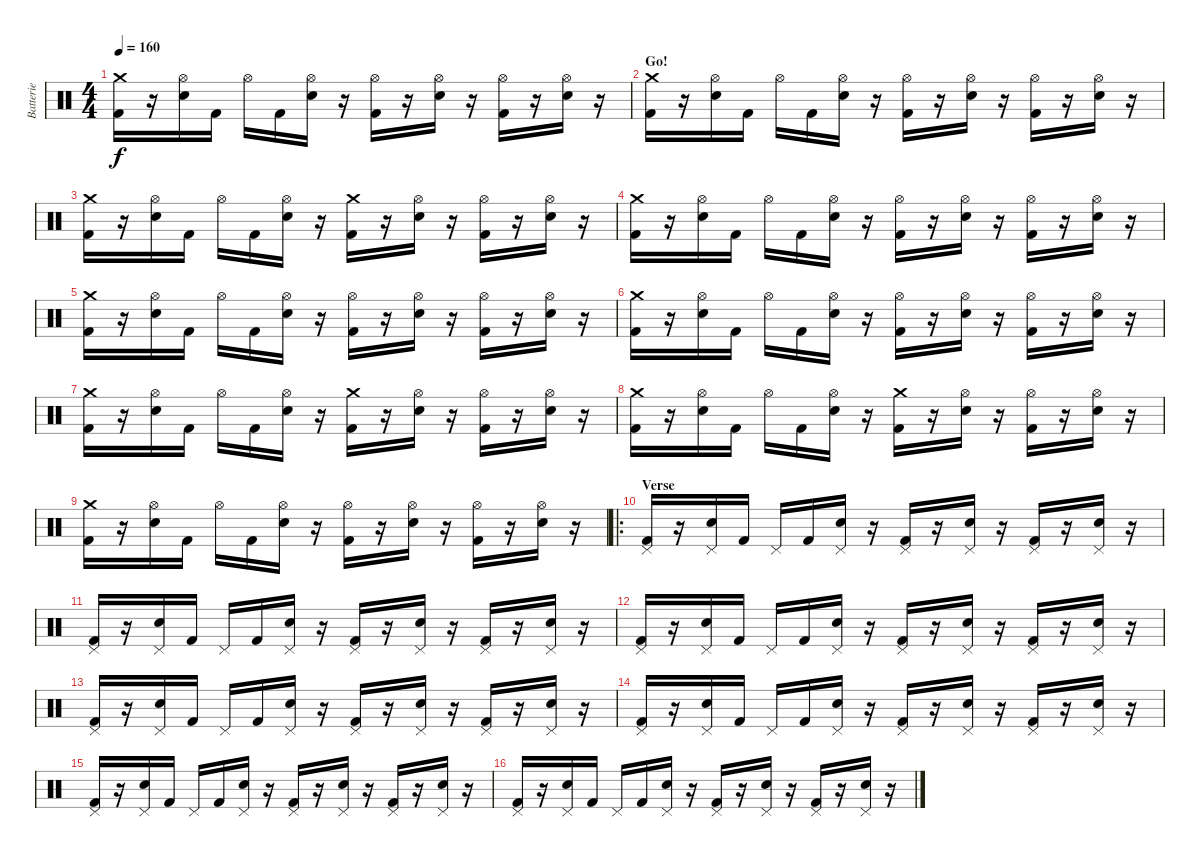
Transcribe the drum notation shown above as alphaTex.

\track ("Batterie" "Batterie") {instrument percussion}
\staff {score}
\articulation defaults
\ts (4 4)
\tempo 160
\clef neutral
\ks c
("Crash medium (hit)" "Kick (hit) 2").16{dy f} r.16 ("Hi-Hat (open)" "Electric Snare (hit)").16 "Kick (hit) 2".16 "Hi-Hat (open)".16 "Kick (hit) 2".16 ("Hi-Hat (open)" "Electric Snare (hit)").16 r.16 ("Hi-Hat (open)" "Kick (hit) 2").16 r.16 ("Hi-Hat (open)" "Electric Snare (hit)").16 r.16 ("Hi-Hat (open)" "Kick (hit) 2").16 r.16 ("Hi-Hat (open)" "Electric Snare (hit)").16 r.16 |
\section ("" "Go!")
("Crash medium (hit)" "Kick (hit) 2").16 r.16 ("Hi-Hat (open)" "Electric Snare (hit)").16 "Kick (hit) 2".16 "Hi-Hat (open)".16 "Kick (hit) 2".16 ("Hi-Hat (open)" "Electric Snare (hit)").16 r.16 ("Hi-Hat (open)" "Kick (hit) 2").16 r.16 ("Hi-Hat (open)" "Electric Snare (hit)").16 r.16 ("Hi-Hat (open)" "Kick (hit) 2").16 r.16 ("Hi-Hat (open)" "Electric Snare (hit)").16 r.16 |
("Crash medium (hit)" "Kick (hit) 2").16 r.16 ("Hi-Hat (open)" "Electric Snare (hit)").16 "Kick (hit) 2".16 "Hi-Hat (open)".16 "Kick (hit) 2".16 ("Hi-Hat (open)" "Electric Snare (hit)").16 r.16 ("Crash medium (hit)" "Kick (hit) 2").16 r.16 ("Hi-Hat (open)" "Electric Snare (hit)").16 r.16 ("Hi-Hat (open)" "Kick (hit) 2").16 r.16 ("Hi-Hat (open)" "Electric Snare (hit)").16 r.16 |
("Crash medium (hit)" "Kick (hit) 2").16 r.16 ("Hi-Hat (open)" "Electric Snare (hit)").16 "Kick (hit) 2".16 "Hi-Hat (open)".16 "Kick (hit) 2".16 ("Hi-Hat (open)" "Electric Snare (hit)").16 r.16 ("Hi-Hat (open)" "Kick (hit) 2").16 r.16 ("Hi-Hat (open)" "Electric Snare (hit)").16 r.16 ("Hi-Hat (open)" "Kick (hit) 2").16 r.16 ("Hi-Hat (open)" "Electric Snare (hit)").16 r.16 |
("Crash medium (hit)" "Kick (hit) 2").16 r.16 ("Hi-Hat (open)" "Electric Snare (hit)").16 "Kick (hit) 2".16 "Hi-Hat (open)".16 "Kick (hit) 2".16 ("Hi-Hat (open)" "Electric Snare (hit)").16 r.16 ("Hi-Hat (open)" "Kick (hit) 2").16 r.16 ("Hi-Hat (open)" "Electric Snare (hit)").16 r.16 ("Hi-Hat (open)" "Kick (hit) 2").16 r.16 ("Hi-Hat (open)" "Electric Snare (hit)").16 r.16 |
("Crash medium (hit)" "Kick (hit) 2").16 r.16 ("Hi-Hat (open)" "Electric Snare (hit)").16 "Kick (hit) 2".16 "Hi-Hat (open)".16 "Kick (hit) 2".16 ("Hi-Hat (open)" "Electric Snare (hit)").16 r.16 ("Hi-Hat (open)" "Kick (hit) 2").16 r.16 ("Hi-Hat (open)" "Electric Snare (hit)").16 r.16 ("Hi-Hat (open)" "Kick (hit) 2").16 r.16 ("Hi-Hat (open)" "Electric Snare (hit)").16 r.16 |
("Crash medium (hit)" "Kick (hit) 2").16 r.16 ("Hi-Hat (open)" "Electric Snare (hit)").16 "Kick (hit) 2".16 "Hi-Hat (open)".16 "Kick (hit) 2".16 ("Hi-Hat (open)" "Electric Snare (hit)").16 r.16 ("Crash medium (hit)" "Kick (hit) 2").16 r.16 ("Hi-Hat (open)" "Electric Snare (hit)").16 r.16 ("Hi-Hat (open)" "Kick (hit) 2").16 r.16 ("Hi-Hat (open)" "Electric Snare (hit)").16 r.16 |
("Crash medium (hit)" "Kick (hit) 2").16 r.16 ("Hi-Hat (open)" "Electric Snare (hit)").16 "Kick (hit) 2".16 "Hi-Hat (open)".16 "Kick (hit) 2".16 ("Hi-Hat (open)" "Electric Snare (hit)").16 r.16 ("Crash medium (hit)" "Kick (hit) 2").16 r.16 ("Hi-Hat (open)" "Electric Snare (hit)").16 r.16 ("Hi-Hat (open)" "Kick (hit) 2").16 r.16 ("Hi-Hat (open)" "Electric Snare (hit)").16 r.16 |
("Crash medium (hit)" "Kick (hit) 2").16 r.16 ("Hi-Hat (open)" "Electric Snare (hit)").16 "Kick (hit) 2".16 "Hi-Hat (open)".16 "Kick (hit) 2".16 ("Hi-Hat (open)" "Electric Snare (hit)").16 r.16 ("Hi-Hat (open)" "Kick (hit) 2").16 r.16 ("Hi-Hat (open)" "Electric Snare (hit)").16 r.16 ("Hi-Hat (open)" "Kick (hit) 2").16 r.16 ("Hi-Hat (open)" "Electric Snare (hit)").16 r.16 |
\ro
\section ("" "Verse")
("Pedal Hi-Hat (hit)" "Kick (hit) 2").16 r.16 ("Pedal Hi-Hat (hit)" "Electric Snare (hit)").16 "Kick (hit) 2".16 "Pedal Hi-Hat (hit)".16 "Kick (hit) 2".16 ("Pedal Hi-Hat (hit)" "Electric Snare (hit)").16 r.16 ("Pedal Hi-Hat (hit)" "Kick (hit) 2").16 r.16 ("Pedal Hi-Hat (hit)" "Electric Snare (hit)").16 r.16 ("Pedal Hi-Hat (hit)" "Kick (hit) 2").16 r.16 ("Pedal Hi-Hat (hit)" "Electric Snare (hit)").16 r.16 |
("Pedal Hi-Hat (hit)" "Kick (hit) 2").16 r.16 ("Pedal Hi-Hat (hit)" "Electric Snare (hit)").16 "Kick (hit) 2".16 "Pedal Hi-Hat (hit)".16 "Kick (hit) 2".16 ("Pedal Hi-Hat (hit)" "Electric Snare (hit)").16 r.16 ("Pedal Hi-Hat (hit)" "Kick (hit) 2").16 r.16 ("Pedal Hi-Hat (hit)" "Electric Snare (hit)").16 r.16 ("Pedal Hi-Hat (hit)" "Kick (hit) 2").16 r.16 ("Pedal Hi-Hat (hit)" "Electric Snare (hit)").16 r.16 |
("Pedal Hi-Hat (hit)" "Kick (hit) 2").16 r.16 ("Pedal Hi-Hat (hit)" "Electric Snare (hit)").16 "Kick (hit) 2".16 "Pedal Hi-Hat (hit)".16 "Kick (hit) 2".16 ("Pedal Hi-Hat (hit)" "Electric Snare (hit)").16 r.16 ("Pedal Hi-Hat (hit)" "Kick (hit) 2").16 r.16 ("Pedal Hi-Hat (hit)" "Electric Snare (hit)").16 r.16 ("Pedal Hi-Hat (hit)" "Kick (hit) 2").16 r.16 ("Pedal Hi-Hat (hit)" "Electric Snare (hit)").16 r.16 |
("Pedal Hi-Hat (hit)" "Kick (hit) 2").16 r.16 ("Pedal Hi-Hat (hit)" "Electric Snare (hit)").16 "Kick (hit) 2".16 "Pedal Hi-Hat (hit)".16 "Kick (hit) 2".16 ("Pedal Hi-Hat (hit)" "Electric Snare (hit)").16 r.16 ("Pedal Hi-Hat (hit)" "Kick (hit) 2").16 r.16 ("Pedal Hi-Hat (hit)" "Electric Snare (hit)").16 r.16 ("Pedal Hi-Hat (hit)" "Kick (hit) 2").16 r.16 ("Pedal Hi-Hat (hit)" "Electric Snare (hit)").16 r.16 |
("Pedal Hi-Hat (hit)" "Kick (hit) 2").16 r.16 ("Pedal Hi-Hat (hit)" "Electric Snare (hit)").16 "Kick (hit) 2".16 "Pedal Hi-Hat (hit)".16 "Kick (hit) 2".16 ("Pedal Hi-Hat (hit)" "Electric Snare (hit)").16 r.16 ("Pedal Hi-Hat (hit)" "Kick (hit) 2").16 r.16 ("Pedal Hi-Hat (hit)" "Electric Snare (hit)").16 r.16 ("Pedal Hi-Hat (hit)" "Kick (hit) 2").16 r.16 ("Pedal Hi-Hat (hit)" "Electric Snare (hit)").16 r.16 |
("Pedal Hi-Hat (hit)" "Kick (hit) 2").16 r.16 ("Pedal Hi-Hat (hit)" "Electric Snare (hit)").16 "Kick (hit) 2".16 "Pedal Hi-Hat (hit)".16 "Kick (hit) 2".16 ("Pedal Hi-Hat (hit)" "Electric Snare (hit)").16 r.16 ("Pedal Hi-Hat (hit)" "Kick (hit) 2").16 r.16 ("Pedal Hi-Hat (hit)" "Electric Snare (hit)").16 r.16 ("Pedal Hi-Hat (hit)" "Kick (hit) 2").16 r.16 ("Pedal Hi-Hat (hit)" "Electric Snare (hit)").16 r.16 |
("Pedal Hi-Hat (hit)" "Kick (hit) 2").16 r.16 ("Pedal Hi-Hat (hit)" "Electric Snare (hit)").16 "Kick (hit) 2".16 "Pedal Hi-Hat (hit)".16 "Kick (hit) 2".16 ("Pedal Hi-Hat (hit)" "Electric Snare (hit)").16 r.16 ("Pedal Hi-Hat (hit)" "Kick (hit) 2").16 r.16 ("Pedal Hi-Hat (hit)" "Electric Snare (hit)").16 r.16 ("Pedal Hi-Hat (hit)" "Kick (hit) 2").16 r.16 ("Pedal Hi-Hat (hit)" "Electric Snare (hit)").16 r.16
